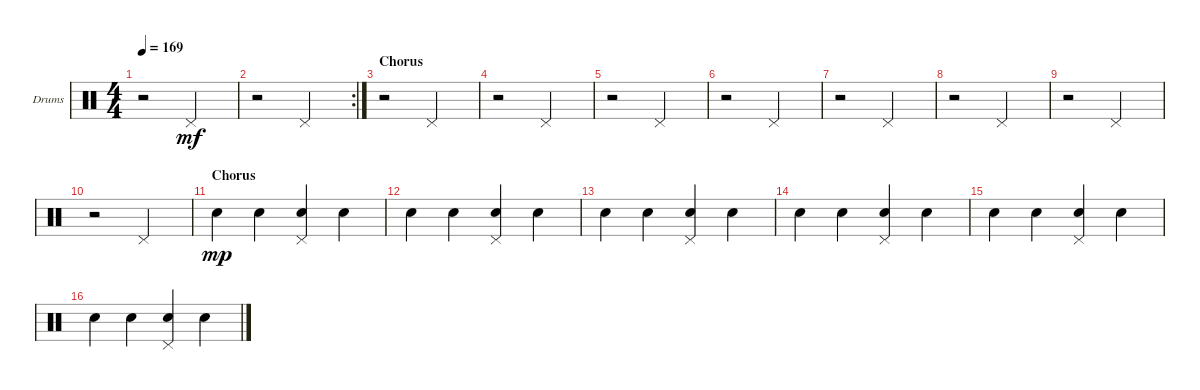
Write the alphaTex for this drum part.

\bracketExtendMode groupsimilarinstruments
\firstSystemTrackNameOrientation horizontal
\otherSystemsTrackNameOrientation horizontal
\track ("Drumkit" "Drums") {instrument percussion}
\staff {score}
\articulation defaults
\ts (4 4)
\tempo 169
\clef neutral
\ks c
r.2{dy mf} "Pedal Hi-Hat (hit)".2 |
\rc 2
r.2 "Pedal Hi-Hat (hit)".2 |
\section ("" "Chorus")
r.2 "Pedal Hi-Hat (hit)".2 |
r.2 "Pedal Hi-Hat (hit)".2 |
r.2 "Pedal Hi-Hat (hit)".2 |
r.2 "Pedal Hi-Hat (hit)".2 |
r.2 "Pedal Hi-Hat (hit)".2 |
r.2 "Pedal Hi-Hat (hit)".2 |
r.2 "Pedal Hi-Hat (hit)".2 |
r.2 "Pedal Hi-Hat (hit)".2 |
\section ("" "Chorus")
"Snare (hit) 2".4{dy mp} "Snare (hit) 2".4 ("Snare (hit) 2" "Pedal Hi-Hat (hit)").4 "Snare (hit) 2".4 |
"Snare (hit) 2".4 "Snare (hit) 2".4 ("Snare (hit) 2" "Pedal Hi-Hat (hit)").4 "Snare (hit) 2".4 |
"Snare (hit) 2".4 "Snare (hit) 2".4 ("Snare (hit) 2" "Pedal Hi-Hat (hit)").4 "Snare (hit) 2".4 |
"Snare (hit) 2".4 "Snare (hit) 2".4 ("Snare (hit) 2" "Pedal Hi-Hat (hit)").4 "Snare (hit) 2".4 |
"Snare (hit) 2".4 "Snare (hit) 2".4 ("Snare (hit) 2" "Pedal Hi-Hat (hit)").4 "Snare (hit) 2".4 |
"Snare (hit) 2".4 "Snare (hit) 2".4 ("Snare (hit) 2" "Pedal Hi-Hat (hit)").4 "Snare (hit) 2".4
